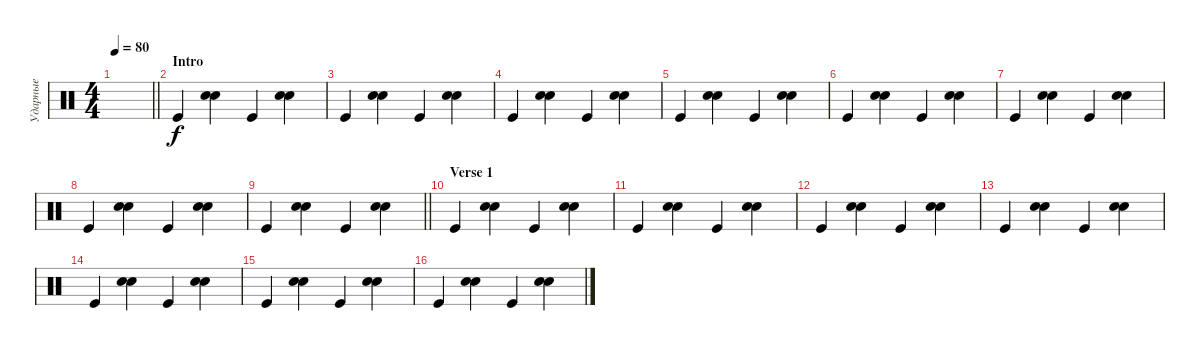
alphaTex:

\track ("Ударные" "Ударные") {instrument percussion}
\staff {score}
\articulation defaults
\ts (4 4)
\tempo 80
\clef neutral
\barLineRight lightlight
\ks aminor
|
\section ("" "Intro")
"Kick (hit)".4 ("Snare (hit) 2" "Snare (hit) 2").4{bd 120} "Kick (hit)".4 ("Snare (hit) 2" "Snare (hit) 2").4{bd 120} |
"Kick (hit)".4 ("Snare (hit) 2" "Snare (hit) 2").4{bd 120} "Kick (hit)".4 ("Snare (hit) 2" "Snare (hit) 2").4{bd 120} |
"Kick (hit)".4 ("Snare (hit) 2" "Snare (hit) 2").4{bd 120} "Kick (hit)".4 ("Snare (hit) 2" "Snare (hit) 2").4{bd 120} |
"Kick (hit)".4 ("Snare (hit) 2" "Snare (hit) 2").4{bd 120} "Kick (hit)".4 ("Snare (hit) 2" "Snare (hit) 2").4{bd 120} |
"Kick (hit)".4 ("Snare (hit) 2" "Snare (hit) 2").4{bd 120} "Kick (hit)".4 ("Snare (hit) 2" "Snare (hit) 2").4{bd 120} |
"Kick (hit)".4 ("Snare (hit) 2" "Snare (hit) 2").4{bd 120} "Kick (hit)".4 ("Snare (hit) 2" "Snare (hit) 2").4{bd 120} |
"Kick (hit)".4 ("Snare (hit) 2" "Snare (hit) 2").4{bd 120} "Kick (hit)".4 ("Snare (hit) 2" "Snare (hit) 2").4{bd 120} |
\barLineRight lightlight "Kick (hit)".4
("Snare (hit) 2" "Snare (hit) 2").4{bd 120} "Kick (hit)".4 ("Snare (hit) 2" "Snare (hit) 2").4{bd 120} |
\section ("" "Verse 1")
"Kick (hit)".4 ("Snare (hit) 2" "Snare (hit) 2").4{bd 120} "Kick (hit)".4 ("Snare (hit) 2" "Snare (hit) 2").4{bd 120} |
"Kick (hit)".4 ("Snare (hit) 2" "Snare (hit) 2").4{bd 120} "Kick (hit)".4 ("Snare (hit) 2" "Snare (hit) 2").4{bd 120} |
"Kick (hit)".4 ("Snare (hit) 2" "Snare (hit) 2").4{bd 120} "Kick (hit)".4 ("Snare (hit) 2" "Snare (hit) 2").4{bd 120} |
"Kick (hit)".4 ("Snare (hit) 2" "Snare (hit) 2").4{bd 120} "Kick (hit)".4 ("Snare (hit) 2" "Snare (hit) 2").4{bd 120} |
"Kick (hit)".4 ("Snare (hit) 2" "Snare (hit) 2").4{bd 120} "Kick (hit)".4 ("Snare (hit) 2" "Snare (hit) 2").4{bd 120} |
"Kick (hit)".4 ("Snare (hit) 2" "Snare (hit) 2").4{bd 120} "Kick (hit)".4 ("Snare (hit) 2" "Snare (hit) 2").4{bd 120} |
"Kick (hit)".4 ("Snare (hit) 2" "Snare (hit) 2").4{bd 120} "Kick (hit)".4 ("Snare (hit) 2" "Snare (hit) 2").4{bd 120}
